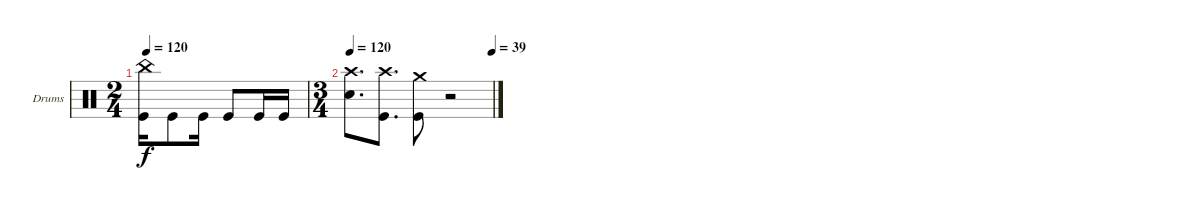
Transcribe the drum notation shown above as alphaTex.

\defaultSystemsLayout 4
\bracketExtendMode groupsimilarinstruments
\firstSystemTrackNameOrientation horizontal
\otherSystemsTrackNameOrientation horizontal
\track ("Drumkit" "Drums") {instrument percussion}
\staff {score}
\articulation defaults
\ts (2 4)
\tempo 120
\clef neutral
\scale
0.333333
\ks c
("China (hit)" "Kick (hit)").16{dy f} "Kick (hit)".8 "Kick (hit)".16 "Kick (hit)".8 "Kick (hit)".16 "Kick (hit)".16 |
\ts (3 4)
\tempo 120
\tempo (39 0.997783)
("Crash high (hit)" "Snare (hit) 2").8{d} ("Crash high (hit)" "Kick (hit)").8{d} ("Crash medium (hit)" "Kick (hit)").8 r.2
